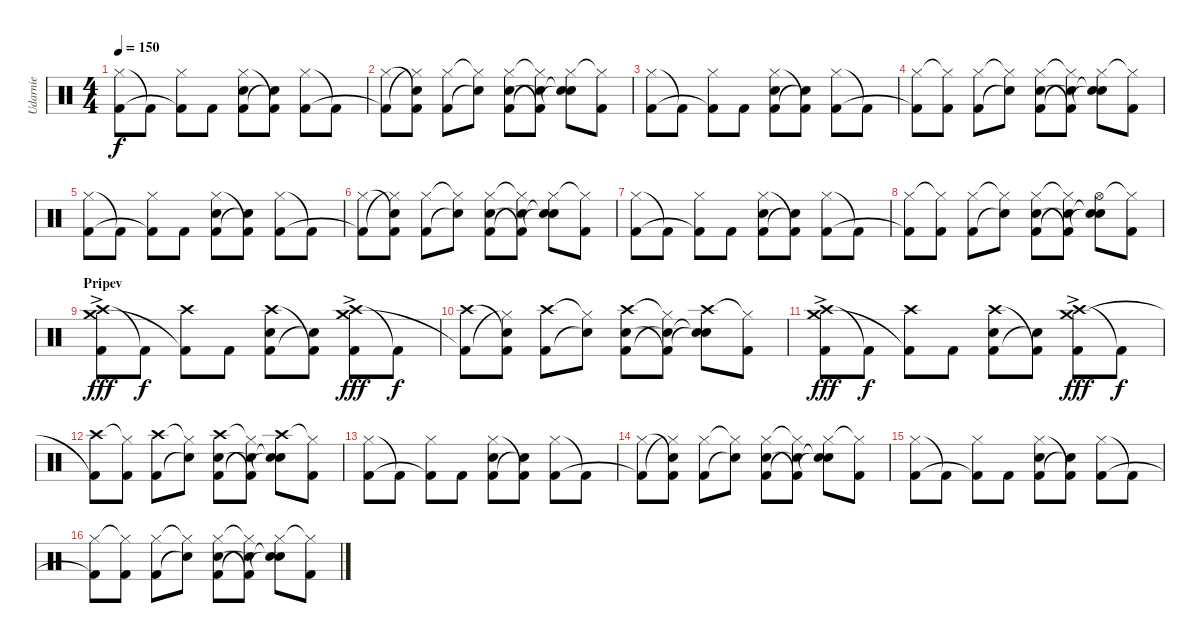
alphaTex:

\track ("Udarnie" "Udarnie") {instrument percussion}
\staff {score}
\articulation defaults
\ts (4 4)
\tempo 150
\clef neutral
\ks c
("Hi-Hat (closed)" "Kick (hit) 2").8{dy f} "Kick (hit) 2"{t}.8 ("Hi-Hat (closed)" "Kick (hit) 2"{t}).8 "Kick (hit) 2".8 ("Hi-Hat (closed)" "Kick (hit) 2" "Snare (hit) 2").8 ("Kick (hit) 2"{t} "Snare (hit) 2"{t}).8 ("Hi-Hat (closed)" "Kick (hit) 2").8 "Kick (hit) 2"{t}.8 |
("Hi-Hat (closed)" "Kick (hit) 2"{t}).8 ("Snare (hit)"{t} "Hi-Hat (closed)"{t} "Kick (hit) 2").8 ("Hi-Hat (closed)" "Kick (hit) 2").8 ("Hi-Hat (closed)"{t} "Snare (hit)"{t}).8 ("Hi-Hat (closed)" "Snare (hit) 2" "Kick (hit) 2").8 ("Hi-Hat (closed)"{t} "Kick (hit) 2"{t} "Snare (hit) 2"{t}).8 ("Hi-Hat (closed)" "Snare (hit)"{t} "Snare (hit)"{t}).8 ("Hi-Hat (closed)"{t} "Kick (hit) 2").8 |
("Hi-Hat (closed)" "Kick (hit) 2").8 "Kick (hit) 2"{t}.8 ("Hi-Hat (closed)" "Kick (hit) 2"{t}).8 "Kick (hit) 2".8 ("Hi-Hat (closed)" "Kick (hit) 2" "Snare (hit) 2").8 ("Kick (hit) 2"{t} "Snare (hit) 2"{t}).8 ("Hi-Hat (closed)" "Kick (hit) 2").8 "Kick (hit) 2"{t}.8 |
("Hi-Hat (closed)" "Kick (hit) 2"{t}).8 ("Hi-Hat (closed)"{t} "Kick (hit) 2").8 ("Hi-Hat (closed)" "Kick (hit) 2").8 ("Hi-Hat (closed)"{t} "Snare (hit)"{t}).8 ("Hi-Hat (closed)" "Snare (hit) 2" "Kick (hit) 2").8 ("Hi-Hat (closed)"{t} "Kick (hit) 2"{t} "Snare (hit) 2"{t}).8 ("Hi-Hat (closed)" "Snare (hit)"{t} "Snare (hit)"{t}).8 ("Hi-Hat (closed)"{t} "Kick (hit) 2").8 |
("Hi-Hat (closed)" "Kick (hit) 2").8 "Kick (hit) 2"{t}.8 ("Hi-Hat (closed)" "Kick (hit) 2"{t}).8 "Kick (hit) 2".8 ("Hi-Hat (closed)" "Kick (hit) 2" "Snare (hit) 2").8 ("Kick (hit) 2"{t} "Snare (hit) 2"{t}).8 ("Hi-Hat (closed)" "Kick (hit) 2").8 "Kick (hit) 2"{t}.8 |
("Hi-Hat (closed)" "Kick (hit) 2"{t}).8 ("Snare (hit)"{t} "Hi-Hat (closed)"{t} "Kick (hit) 2").8 ("Hi-Hat (closed)" "Kick (hit) 2").8 ("Hi-Hat (closed)"{t} "Snare (hit)"{t}).8 ("Hi-Hat (closed)" "Snare (hit) 2" "Kick (hit) 2").8 ("Hi-Hat (closed)"{t} "Kick (hit) 2"{t} "Snare (hit) 2"{t}).8 ("Hi-Hat (closed)" "Snare (hit)"{t} "Snare (hit)"{t}).8 ("Hi-Hat (closed)"{t} "Kick (hit) 2").8 |
("Hi-Hat (closed)" "Kick (hit) 2").8 "Kick (hit) 2"{t}.8 ("Hi-Hat (closed)" "Kick (hit) 2"{t}).8 "Kick (hit) 2".8 ("Hi-Hat (closed)" "Kick (hit) 2" "Snare (hit) 2").8 ("Kick (hit) 2"{t} "Snare (hit) 2"{t}).8 ("Hi-Hat (closed)" "Kick (hit) 2").8 "Kick (hit) 2"{t}.8 |
("Hi-Hat (closed)" "Kick (hit) 2"{t}).8 ("Hi-Hat (closed)"{t} "Kick (hit) 2").8 ("Hi-Hat (closed)" "Kick (hit) 2").8 ("Hi-Hat (closed)"{t} "Snare (hit)"{t}).8 ("Hi-Hat (closed)" "Snare (hit) 2" "Kick (hit) 2").8 ("Hi-Hat (closed)"{t} "Kick (hit) 2"{t} "Snare (hit) 2"{t}).8 ("Hi-Hat (open)" "Snare (hit)"{t} "Snare (hit)"{t}).8 ("Hi-Hat (closed)"{t} "Kick (hit) 2").8 |
\section ("" "Pripev")
("Crash high (hit)" "Crash medium (hit)"{ac} "Kick (hit) 2").8{dy fff} "Kick (hit) 2"{t}.8{dy f} ("Crash high (hit)" "Kick (hit) 2"{t}).8 "Kick (hit) 2".8 ("Crash high (hit)" "Kick (hit) 2" "Snare (hit) 2").8 ("Kick (hit) 2"{t} "Snare (hit) 2"{t}).8 ("Crash high (hit)" "Crash medium (hit)"{ac} "Kick (hit) 2").8{dy fff} "Kick (hit) 2"{t}.8{dy f} |
("Crash high (hit)" "Kick (hit) 2"{t}).8 ("Snare (hit)"{t} "Hi-Hat (closed)"{t} "Kick (hit) 2").8 ("Crash high (hit)" "Kick (hit) 2").8 ("Hi-Hat (closed)"{t} "Snare (hit)"{t}).8 ("Crash high (hit)" "Snare (hit) 2" "Kick (hit) 2").8 ("Hi-Hat (closed)"{t} "Kick (hit) 2"{t} "Snare (hit) 2"{t}).8 ("Crash high (hit)" "Snare (hit)"{t} "Snare (hit)"{t}).8 ("Hi-Hat (closed)"{t} "Kick (hit) 2").8 |
("Crash high (hit)" "Crash medium (hit)"{ac} "Kick (hit) 2").8{dy fff} "Kick (hit) 2"{t}.8{dy f} ("Crash high (hit)" "Kick (hit) 2"{t}).8 "Kick (hit) 2".8 ("Crash high (hit)" "Kick (hit) 2" "Snare (hit) 2").8 ("Kick (hit) 2"{t} "Snare (hit) 2"{t}).8 ("Crash high (hit)" "Crash medium (hit)"{ac} "Kick (hit) 2").8{dy fff} "Kick (hit) 2"{t}.8{dy f} |
("Crash high (hit)" "Kick (hit) 2"{t}).8 ("Hi-Hat (closed)"{t} "Kick (hit) 2").8 ("Crash high (hit)" "Kick (hit) 2").8 ("Hi-Hat (closed)"{t} "Snare (hit)"{t}).8 ("Crash high (hit)" "Snare (hit) 2" "Kick (hit) 2").8 ("Hi-Hat (closed)"{t} "Kick (hit) 2"{t} "Snare (hit) 2"{t}).8 ("Crash high (hit)" "Snare (hit)"{t} "Snare (hit)"{t}).8 ("Hi-Hat (closed)"{t} "Kick (hit) 2").8 |
("Hi-Hat (closed)" "Kick (hit) 2").8 "Kick (hit) 2"{t}.8 ("Hi-Hat (closed)" "Kick (hit) 2"{t}).8 "Kick (hit) 2".8 ("Hi-Hat (closed)" "Kick (hit) 2" "Snare (hit) 2").8 ("Kick (hit) 2"{t} "Snare (hit) 2"{t}).8 ("Hi-Hat (closed)" "Kick (hit) 2").8 "Kick (hit) 2"{t}.8 |
("Hi-Hat (closed)" "Kick (hit) 2"{t}).8 ("Snare (hit)"{t} "Hi-Hat (closed)"{t} "Kick (hit) 2").8 ("Hi-Hat (closed)" "Kick (hit) 2").8 ("Hi-Hat (closed)"{t} "Snare (hit)"{t}).8 ("Hi-Hat (closed)" "Snare (hit) 2" "Kick (hit) 2").8 ("Hi-Hat (closed)"{t} "Kick (hit) 2"{t} "Snare (hit) 2"{t}).8 ("Hi-Hat (closed)" "Snare (hit)"{t} "Snare (hit)"{t}).8 ("Hi-Hat (closed)"{t} "Kick (hit) 2").8 |
("Hi-Hat (closed)" "Kick (hit) 2").8 "Kick (hit) 2"{t}.8 ("Hi-Hat (closed)" "Kick (hit) 2"{t}).8 "Kick (hit) 2".8 ("Hi-Hat (closed)" "Kick (hit) 2" "Snare (hit) 2").8 ("Kick (hit) 2"{t} "Snare (hit) 2"{t}).8 ("Hi-Hat (closed)" "Kick (hit) 2").8 "Kick (hit) 2"{t}.8 |
("Hi-Hat (closed)" "Kick (hit) 2"{t}).8 ("Hi-Hat (closed)"{t} "Kick (hit) 2").8 ("Hi-Hat (closed)" "Kick (hit) 2").8 ("Hi-Hat (closed)"{t} "Snare (hit)"{t}).8 ("Hi-Hat (closed)" "Snare (hit) 2" "Kick (hit) 2").8 ("Hi-Hat (closed)"{t} "Kick (hit) 2"{t} "Snare (hit) 2"{t}).8 ("Hi-Hat (closed)" "Snare (hit)"{t} "Snare (hit)"{t}).8 ("Hi-Hat (closed)"{t} "Kick (hit) 2").8
